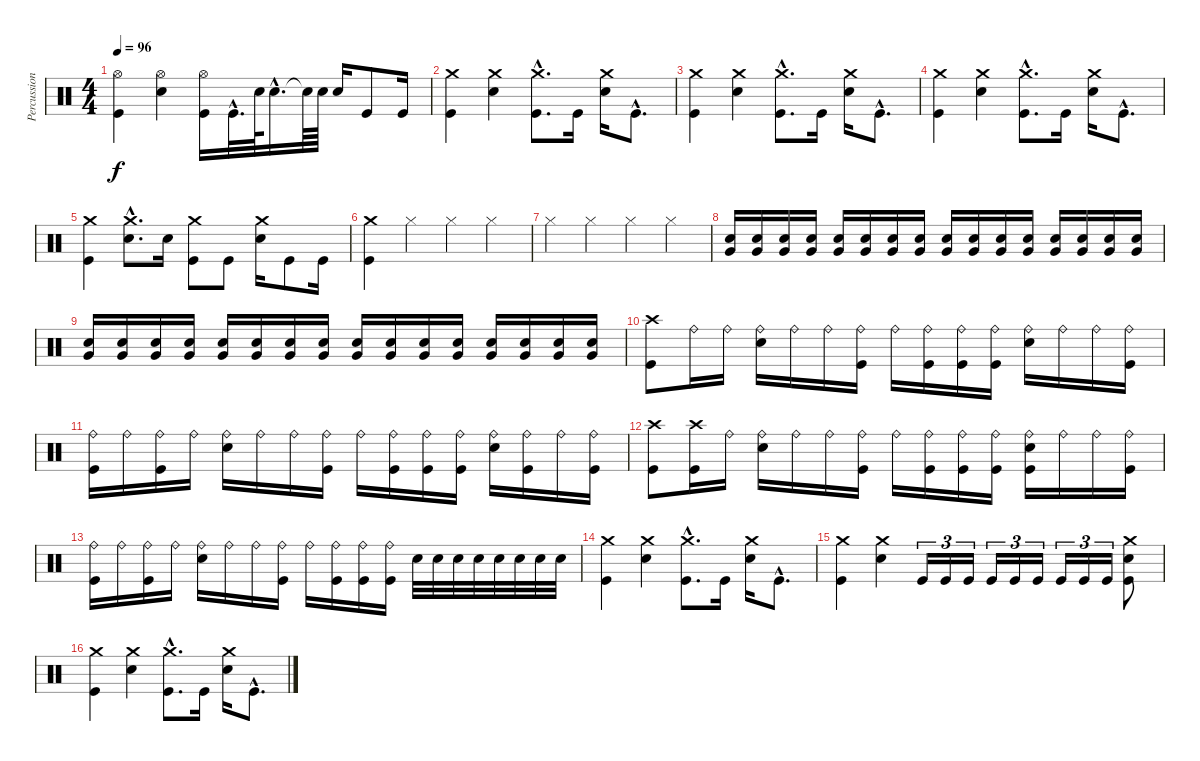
\track ("Percussion" "Percussion") {instrument percussion}
\staff {score}
\articulation defaults
\ts (4 4)
\tempo 96
\clef neutral
\ks c
("Kick (hit)" "Hi-Hat (open)").4{dy f} ("Electric Snare (hit)" "Hi-Hat (open)").4 ("Hi-Hat (open)" "Kick (hit)").16 "Kick (hit)"{hac}.32{d} "Electric Snare (hit)".64 "Electric Snare (hit)"{hac}.16{d} "Snare (hit)"{t}.64 "Electric Snare (hit)".64 "Electric Snare (hit)".16 "Kick (hit)".8 "Kick (hit)".16 |
("Crash medium (hit)" "Kick (hit)").4 ("Crash medium (hit)" "Electric Snare (hit)").4 ("Crash medium (hit)"{hac} "Kick (hit)"{hac}).8{d} "Kick (hit)".16 ("Crash medium (hit)" "Electric Snare (hit)").16 "Kick (hit)"{hac}.8{d} |
("Crash medium (hit)" "Kick (hit)").4 ("Crash medium (hit)" "Electric Snare (hit)").4 ("Crash medium (hit)"{hac} "Kick (hit)"{hac}).8{d} "Kick (hit)".16 ("Crash medium (hit)" "Electric Snare (hit)").16 "Kick (hit)"{hac}.8{d} |
("Crash medium (hit)" "Kick (hit)").4 ("Crash medium (hit)" "Electric Snare (hit)").4 ("Crash medium (hit)"{hac} "Kick (hit)"{hac}).8{d} "Kick (hit)".16 ("Crash medium (hit)" "Electric Snare (hit)").16 "Kick (hit)"{hac}.8{d} |
("Kick (hit)" "Crash medium (hit)").4 ("Electric Snare (hit)"{hac} "Crash medium (hit)"{hac}).8{d} "Electric Snare (hit)".16 ("Kick (hit)" "Crash medium (hit)").8 "Kick (hit)".8 ("Electric Snare (hit)" "Crash medium (hit)").16 "Kick (hit)".8 "Kick (hit)".16 |
("Kick (hit)" "Crash medium (hit)").4 "Hi-Hat (closed)".4 "Hi-Hat (closed)".4 "Hi-Hat (closed)".4 |
"Hi-Hat (closed)".4 "Hi-Hat (closed)".4 "Hi-Hat (closed)".4 "Hi-Hat (closed)".4 |
("Very Low Tom (hit)" "Electric Snare (hit)").16 ("Very Low Tom (hit)" "Electric Snare (hit)").16 ("Very Low Tom (hit)" "Electric Snare (hit)").16 ("Very Low Tom (hit)" "Electric Snare (hit)").16 ("Very Low Tom (hit)" "Electric Snare (hit)").16 ("Very Low Tom (hit)" "Electric Snare (hit)").16 ("Very Low Tom (hit)" "Electric Snare (hit)").16 ("Very Low Tom (hit)" "Electric Snare (hit)").16 ("Very Low Tom (hit)" "Electric Snare (hit)").16 ("Very Low Tom (hit)" "Electric Snare (hit)").16 ("Very Low Tom (hit)" "Electric Snare (hit)").16 ("Very Low Tom (hit)" "Electric Snare (hit)").16 ("Very Low Tom (hit)" "Electric Snare (hit)").16 ("Very Low Tom (hit)" "Electric Snare (hit)").16 ("Very Low Tom (hit)" "Electric Snare (hit)").16 ("Very Low Tom (hit)" "Electric Snare (hit)").16 |
("Very Low Tom (hit)" "Electric Snare (hit)").16 ("Very Low Tom (hit)" "Electric Snare (hit)").16 ("Very Low Tom (hit)" "Electric Snare (hit)").16 ("Very Low Tom (hit)" "Electric Snare (hit)").16 ("Very Low Tom (hit)" "Electric Snare (hit)").16 ("Very Low Tom (hit)" "Electric Snare (hit)").16 ("Very Low Tom (hit)" "Electric Snare (hit)").16 ("Very Low Tom (hit)" "Electric Snare (hit)").16 ("Very Low Tom (hit)" "Electric Snare (hit)").16 ("Very Low Tom (hit)" "Electric Snare (hit)").16 ("Very Low Tom (hit)" "Electric Snare (hit)").16 ("Very Low Tom (hit)" "Electric Snare (hit)").16 ("Very Low Tom (hit)" "Electric Snare (hit)").16 ("Very Low Tom (hit)" "Electric Snare (hit)").16 ("Very Low Tom (hit)" "Electric Snare (hit)").16 ("Very Low Tom (hit)" "Electric Snare (hit)").16 |
("Kick (hit)" "Crash high (hit)").8 "Ride (bell)".16 "Ride (bell)".16 ("Electric Snare (hit)" "Ride (bell)").16 "Ride (bell)".16 "Ride (bell)".16 ("Kick (hit)" "Ride (bell)").16 "Ride (bell)".16 ("Kick (hit)" "Ride (bell)").16 ("Kick (hit)" "Ride (bell)").16 ("Kick (hit)" "Ride (bell)").16 ("Electric Snare (hit)" "Ride (bell)").16 "Ride (bell)".16 "Ride (bell)".16 ("Kick (hit)" "Ride (bell)").16 |
("Kick (hit)" "Ride (bell)").16 "Ride (bell)".16 ("Kick (hit)" "Ride (bell)").16 "Ride (bell)".16 ("Electric Snare (hit)" "Ride (bell)").16 "Ride (bell)".16 "Ride (bell)".16 ("Kick (hit)" "Ride (bell)").16 "Ride (bell)".16 ("Kick (hit)" "Ride (bell)").16 ("Kick (hit)" "Ride (bell)").16 ("Kick (hit)" "Ride (bell)").16 ("Electric Snare (hit)" "Ride (bell)").16 ("Kick (hit)" "Ride (bell)").16 "Ride (bell)".16 ("Kick (hit)" "Ride (bell)").16 |
("Crash high (hit)" "Kick (hit)").8 ("Crash high (hit)" "Kick (hit)").16 "Ride (bell)".16 ("Electric Snare (hit)" "Ride (bell)").16 "Ride (bell)".16 "Ride (bell)".16 ("Kick (hit)" "Ride (bell)").16 "Ride (bell)".16 ("Kick (hit)" "Ride (bell)").16 ("Kick (hit)" "Ride (bell)").16 ("Kick (hit)" "Ride (bell)").16 ("Kick (hit)" "Electric Snare (hit)" "Ride (bell)").16 "Ride (bell)".16 "Ride (bell)".16 ("Kick (hit)" "Ride (bell)").16 |
("Kick (hit)" "Ride (bell)").16 "Ride (bell)".16 ("Kick (hit)" "Ride (bell)").16 "Ride (bell)".16 ("Electric Snare (hit)" "Ride (bell)").16 "Ride (bell)".16 "Ride (bell)".16 ("Kick (hit)" "Ride (bell)").16 "Ride (bell)".16 ("Kick (hit)" "Ride (bell)").16 ("Kick (hit)" "Ride (bell)").16 ("Kick (hit)" "Ride (bell)").16 "Electric Snare (hit)".32 "Electric Snare (hit)".32 "Electric Snare (hit)".32 "Electric Snare (hit)".32 "Electric Snare (hit)".32 "Electric Snare (hit)".32 "Electric Snare (hit)".32 "Electric Snare (hit)".32 |
("Crash medium (hit)" "Kick (hit)").4 ("Crash medium (hit)" "Electric Snare (hit)").4 ("Crash medium (hit)"{hac} "Kick (hit)"{hac}).8{d} "Kick (hit)".16 ("Crash medium (hit)" "Electric Snare (hit)").16 "Kick (hit)"{hac}.8{d} |
("Crash medium (hit)" "Kick (hit)").4 ("Crash medium (hit)" "Electric Snare (hit)").4 "Kick (hit)".16{tu (3 2)} "Kick (hit)".16{tu (3 2)} "Kick (hit)".16{tu (3 2)} "Kick (hit)".16{tu (3 2)} "Kick (hit)".16{tu (3 2)} "Kick (hit)".16{tu (3 2)} "Kick (hit)".16{tu (3 2)} "Kick (hit)".16{tu (3 2)} "Kick (hit)".16{tu (3 2)} ("Crash medium (hit)" "Electric Snare (hit)" "Kick (hit)").8 |
("Crash medium (hit)" "Kick (hit)").4 ("Crash medium (hit)" "Electric Snare (hit)").4 ("Crash medium (hit)"{hac} "Kick (hit)"{hac}).8{d} "Kick (hit)".16 ("Crash medium (hit)" "Electric Snare (hit)").16 "Kick (hit)"{hac}.8{d}
